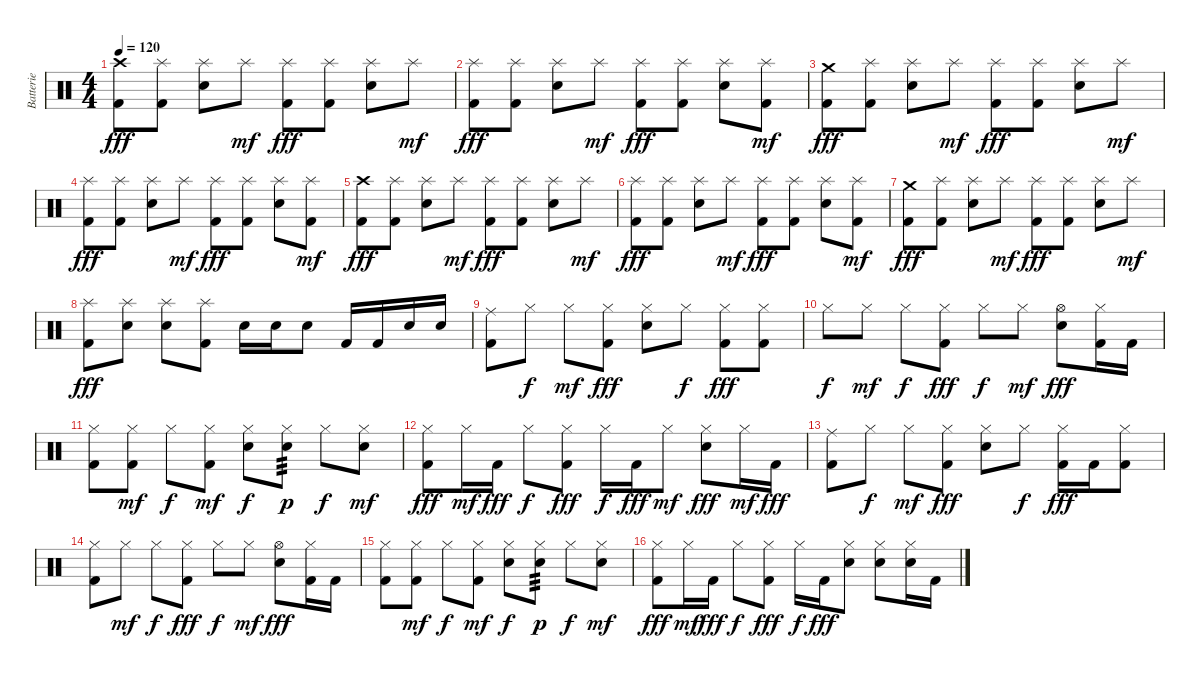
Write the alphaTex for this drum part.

\track ("Batterie" "Batterie") {instrument percussion}
\staff {score}
\articulation defaults
\ts (4 4)
\tempo 120
\clef neutral
\ks c
("Crash high (hit)" "Kick (hit) 2").8{dy fff} ("Splash (hit)" "Kick (hit) 2").8 ("Splash (hit)" "Electric Snare (hit)").8 "Splash (hit)".8{dy mf} ("Splash (hit)" "Kick (hit) 2").8{dy fff} ("Splash (hit)" "Kick (hit) 2").8 ("Splash (hit)" "Electric Snare (hit)").8 "Splash (hit)".8{dy mf} |
("Splash (hit)" "Kick (hit) 2").8{dy fff} ("Splash (hit)" "Kick (hit) 2").8 ("Splash (hit)" "Electric Snare (hit)").8 "Splash (hit)".8{dy mf} ("Splash (hit)" "Kick (hit) 2").8{dy fff} ("Splash (hit)" "Kick (hit) 2").8 ("Splash (hit)" "Electric Snare (hit)").8 ("Splash (hit)" "Kick (hit) 2").8{dy mf} |
("Crash medium (hit)" "Kick (hit) 2").8{dy fff} ("Splash (hit)" "Kick (hit) 2").8 ("Splash (hit)" "Electric Snare (hit)").8 "Splash (hit)".8{dy mf} ("Splash (hit)" "Kick (hit) 2").8{dy fff} ("Splash (hit)" "Kick (hit) 2").8 ("Splash (hit)" "Electric Snare (hit)").8 "Splash (hit)".8{dy mf} |
("Splash (hit)" "Kick (hit) 2").8{dy fff} ("Splash (hit)" "Kick (hit) 2").8 ("Splash (hit)" "Electric Snare (hit)").8 "Splash (hit)".8{dy mf} ("Splash (hit)" "Kick (hit) 2").8{dy fff} ("Splash (hit)" "Kick (hit) 2").8 ("Splash (hit)" "Electric Snare (hit)").8 ("Splash (hit)" "Kick (hit) 2").8{dy mf} |
("Crash high (hit)" "Kick (hit) 2").8{dy fff} ("Splash (hit)" "Kick (hit) 2").8 ("Splash (hit)" "Electric Snare (hit)").8 "Splash (hit)".8{dy mf} ("Splash (hit)" "Kick (hit) 2").8{dy fff} ("Splash (hit)" "Kick (hit) 2").8 ("Splash (hit)" "Electric Snare (hit)").8 "Splash (hit)".8{dy mf} |
("Splash (hit)" "Kick (hit) 2").8{dy fff} ("Splash (hit)" "Kick (hit) 2").8 ("Splash (hit)" "Electric Snare (hit)").8 "Splash (hit)".8{dy mf} ("Splash (hit)" "Kick (hit) 2").8{dy fff} ("Splash (hit)" "Kick (hit) 2").8 ("Splash (hit)" "Electric Snare (hit)").8 ("Splash (hit)" "Kick (hit) 2").8{dy mf} |
("Crash medium (hit)" "Kick (hit) 2").8{dy fff} ("Splash (hit)" "Kick (hit) 2").8 ("Splash (hit)" "Electric Snare (hit)").8 "Splash (hit)".8{dy mf} ("Splash (hit)" "Kick (hit) 2").8{dy fff} ("Splash (hit)" "Kick (hit) 2").8 ("Splash (hit)" "Electric Snare (hit)").8 "Splash (hit)".8{dy mf} |
("Splash (hit)" "Kick (hit) 2").8{dy fff} ("Splash (hit)" "Electric Snare (hit)").8 ("Splash (hit)" "Electric Snare (hit)").8 ("Splash (hit)" "Kick (hit) 2").8 "Electric Snare (hit)".16 "Electric Snare (hit)".16 "Electric Snare (hit)".8 "Kick (hit) 2".16 "Kick (hit) 2".16 "Electric Snare (hit)".16 "Electric Snare (hit)".16 |
("Ride (middle)" "Kick (hit) 2").8 "Hi-Hat (closed)".8{dy f} "Hi-Hat (closed)".8{dy mf} ("Hi-Hat (closed)" "Kick (hit) 2").8{dy fff} ("Hi-Hat (closed)" "Electric Snare (hit)").8 "Hi-Hat (closed)".8{dy f} ("Hi-Hat (closed)" "Kick (hit) 2").8{dy fff} ("Hi-Hat (closed)" "Kick (hit) 2").8 |
"Hi-Hat (closed)".8{dy f} "Hi-Hat (closed)".8{dy mf} "Hi-Hat (closed)".8{dy f} ("Hi-Hat (closed)" "Kick (hit) 2").8{dy fff} "Hi-Hat (closed)".8{dy f} "Hi-Hat (closed)".8{dy mf} ("Hi-Hat (open)" "Electric Snare (hit)").8{dy fff} ("Hi-Hat (closed)" "Kick (hit) 2").16 "Kick (hit) 2".16 |
("Hi-Hat (closed)" "Kick (hit) 2").8 ("Hi-Hat (closed)" "Kick (hit) 2").8{dy mf} "Hi-Hat (closed)".8{dy f} ("Hi-Hat (closed)" "Kick (hit) 2").8{dy mf} ("Hi-Hat (closed)" "Electric Snare (hit)").8{dy f} ("Hi-Hat (closed)" "Electric Snare (hit)").8{tp 3 dy p} "Hi-Hat (closed)".8{dy f} ("Hi-Hat (closed)" "Electric Snare (hit)").8{dy mf} |
("Hi-Hat (closed)" "Kick (hit) 2").8{dy fff} "Hi-Hat (closed)".16{dy mf} "Kick (hit) 2".16{dy fff} "Hi-Hat (closed)".8{dy f} ("Hi-Hat (closed)" "Kick (hit) 2").8{dy fff} "Hi-Hat (closed)".16{dy f} "Kick (hit) 2".16{dy fff} "Hi-Hat (closed)".8{dy mf} ("Hi-Hat (closed)" "Electric Snare (hit)").8{dy fff} "Hi-Hat (closed)".16{dy mf} "Kick (hit) 2".16{dy fff} |
("Ride (middle)" "Kick (hit) 2").8 "Hi-Hat (closed)".8{dy f} "Hi-Hat (closed)".8{dy mf} ("Hi-Hat (closed)" "Kick (hit) 2").8{dy fff} ("Hi-Hat (closed)" "Electric Snare (hit)").8 "Hi-Hat (closed)".8{dy f} ("Hi-Hat (closed)" "Kick (hit) 2").16{dy fff} "Kick (hit) 2".16 ("Hi-Hat (closed)" "Kick (hit) 2").8 |
("Hi-Hat (closed)" "Kick (hit) 2").8 "Hi-Hat (closed)".8{dy mf} "Hi-Hat (closed)".8{dy f} ("Hi-Hat (closed)" "Kick (hit) 2").8{dy fff} "Hi-Hat (closed)".8{dy f} "Hi-Hat (closed)".8{dy mf} ("Hi-Hat (open)" "Electric Snare (hit)").8{dy fff} ("Hi-Hat (closed)" "Kick (hit) 2").16 "Kick (hit) 2".16 |
("Hi-Hat (closed)" "Kick (hit) 2").8 ("Hi-Hat (closed)" "Kick (hit) 2").8{dy mf} "Hi-Hat (closed)".8{dy f} ("Hi-Hat (closed)" "Kick (hit) 2").8{dy mf} ("Hi-Hat (closed)" "Electric Snare (hit)").8{dy f} ("Hi-Hat (closed)" "Electric Snare (hit)").8{tp 3 dy p} "Hi-Hat (closed)".8{dy f} ("Hi-Hat (closed)" "Electric Snare (hit)").8{dy mf} |
("Hi-Hat (closed)" "Kick (hit) 2").8{dy fff} "Hi-Hat (closed)".16{dy mf} "Kick (hit) 2".16{dy fff} "Hi-Hat (closed)".8{dy f} ("Hi-Hat (closed)" "Kick (hit) 2").8{dy fff} "Hi-Hat (closed)".16{dy f} "Kick (hit) 2".16{dy fff} ("Hi-Hat (closed)" "Electric Snare (hit)").8 ("Hi-Hat (closed)" "Electric Snare (hit)").8 ("Hi-Hat (closed)" "Electric Snare (hit)").16 "Kick (hit) 2".16
